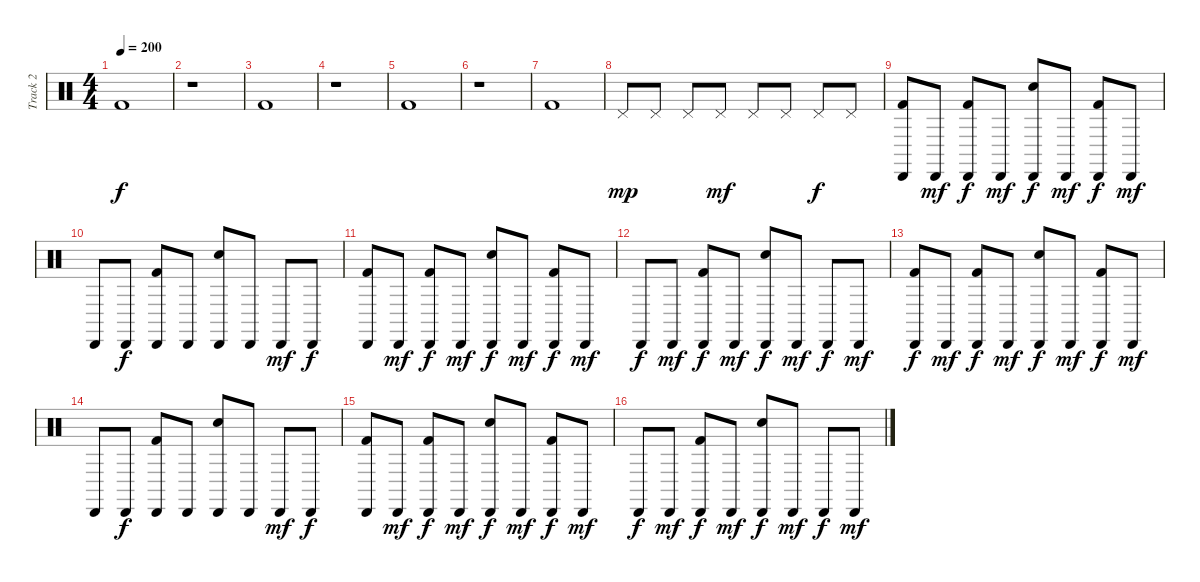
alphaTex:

\track ("Track 2" "Track 2") {instrument percussion}
\staff {score}
\articulation defaults
\ts (4 4)
\tempo 200
\clef neutral
\ks c "Kick (hit) 2".1{dy f}
|
r.1 |
"Kick (hit) 2".1 |
r.1 |
"Kick (hit) 2".1 |
r.1 |
"Kick (hit) 2".1 |
"Pedal Hi-Hat (hit)".8{dy mp} "Pedal Hi-Hat (hit)".8 "Pedal Hi-Hat (hit)".8 "Pedal Hi-Hat (hit)".8{dy mf} "Pedal Hi-Hat (hit)".8 "Pedal Hi-Hat (hit)".8 "Pedal Hi-Hat (hit)".8{dy f} "Pedal Hi-Hat (hit)".8 |
("Cabasa (hit)" "Kick (hit) 2").8 "Cabasa (hit)".8{dy mf} ("Cabasa (hit)" "Kick (hit) 2").8{dy f} "Cabasa (hit)".8{dy mf} ("Cabasa (hit)" "Snare (hit) 2").8{dy f} "Cabasa (hit)".8{dy mf} ("Cabasa (hit)" "Kick (hit) 2").8{dy f} "Cabasa (hit)".8{dy mf} |
"Cabasa (hit)".8 "Cabasa (hit)".8{dy f} ("Cabasa (hit)" "Kick (hit) 2").8 "Cabasa (hit)".8 ("Cabasa (hit)" "Snare (hit) 2").8 "Cabasa (hit)".8 "Cabasa (hit)".8{dy mf} "Cabasa (hit)".8{dy f} |
("Cabasa (hit)" "Kick (hit) 2").8 "Cabasa (hit)".8{dy mf} ("Cabasa (hit)" "Kick (hit) 2").8{dy f} "Cabasa (hit)".8{dy mf} ("Cabasa (hit)" "Snare (hit) 2").8{dy f} "Cabasa (hit)".8{dy mf} ("Cabasa (hit)" "Kick (hit) 2").8{dy f} "Cabasa (hit)".8{dy mf} |
"Cabasa (hit)".8{dy f} "Cabasa (hit)".8{dy mf} ("Cabasa (hit)" "Kick (hit) 2").8{dy f} "Cabasa (hit)".8{dy mf} ("Cabasa (hit)" "Snare (hit) 2").8{dy f} "Cabasa (hit)".8{dy mf} "Cabasa (hit)".8{dy f} "Cabasa (hit)".8{dy mf} |
("Cabasa (hit)" "Kick (hit) 2").8{dy f} "Cabasa (hit)".8{dy mf} ("Cabasa (hit)" "Kick (hit) 2").8{dy f} "Cabasa (hit)".8{dy mf} ("Cabasa (hit)" "Snare (hit) 2").8{dy f} "Cabasa (hit)".8{dy mf} ("Cabasa (hit)" "Kick (hit) 2").8{dy f} "Cabasa (hit)".8{dy mf} |
"Cabasa (hit)".8 "Cabasa (hit)".8{dy f} ("Cabasa (hit)" "Kick (hit) 2").8 "Cabasa (hit)".8 ("Cabasa (hit)" "Snare (hit) 2").8 "Cabasa (hit)".8 "Cabasa (hit)".8{dy mf} "Cabasa (hit)".8{dy f} |
("Cabasa (hit)" "Kick (hit) 2").8 "Cabasa (hit)".8{dy mf} ("Cabasa (hit)" "Kick (hit) 2").8{dy f} "Cabasa (hit)".8{dy mf} ("Cabasa (hit)" "Snare (hit) 2").8{dy f} "Cabasa (hit)".8{dy mf} ("Cabasa (hit)" "Kick (hit) 2").8{dy f} "Cabasa (hit)".8{dy mf} |
"Cabasa (hit)".8{dy f} "Cabasa (hit)".8{dy mf} ("Cabasa (hit)" "Kick (hit) 2").8{dy f} "Cabasa (hit)".8{dy mf} ("Cabasa (hit)" "Snare (hit) 2").8{dy f} "Cabasa (hit)".8{dy mf} "Cabasa (hit)".8{dy f} "Cabasa (hit)".8{dy mf}
